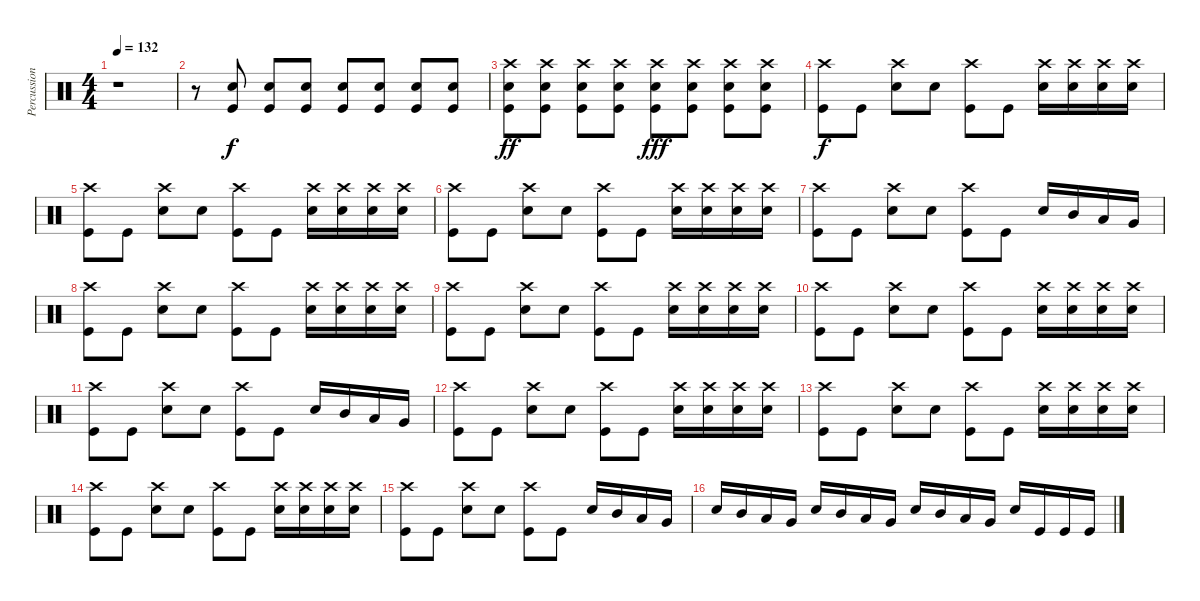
\track ("Percussion" "Percussion") {instrument percussion}
\staff {score}
\articulation defaults
\ts (4 4)
\tempo 132
\clef neutral
\ks c
r.1{dy f} |
r.8 ("Kick (hit)" "Electric Snare (hit)").8 ("Kick (hit)" "Electric Snare (hit)").8 ("Kick (hit)" "Electric Snare (hit)").8 ("Kick (hit)" "Electric Snare (hit)").8 ("Kick (hit)" "Electric Snare (hit)").8 ("Kick (hit)" "Electric Snare (hit)").8 ("Kick (hit)" "Electric Snare (hit)").8 |
("Kick (hit)" "Electric Snare (hit)" "Crash high (hit)").8{dy ff} ("Kick (hit)" "Electric Snare (hit)" "Crash high (hit)").8 ("Kick (hit)" "Electric Snare (hit)" "Crash high (hit)").8 ("Kick (hit)" "Electric Snare (hit)" "Crash high (hit)").8 ("Kick (hit)" "Electric Snare (hit)" "Crash high (hit)").8{dy fff} ("Kick (hit)" "Electric Snare (hit)" "Crash high (hit)").8 ("Kick (hit)" "Electric Snare (hit)" "Crash high (hit)").8 ("Kick (hit)" "Electric Snare (hit)" "Crash high (hit)").8 |
("Kick (hit)" "Crash high (hit)").8{dy f} "Kick (hit)".8 ("Crash high (hit)" "Electric Snare (hit)").8 "Electric Snare (hit)".8 ("Kick (hit)" "Crash high (hit)").8 "Kick (hit)".8 ("Crash high (hit)" "Electric Snare (hit)").16 ("Crash high (hit)" "Electric Snare (hit)").16 ("Crash high (hit)" "Electric Snare (hit)").16 ("Crash high (hit)" "Electric Snare (hit)").16 |
("Kick (hit)" "Crash high (hit)").8 "Kick (hit)".8 ("Crash high (hit)" "Electric Snare (hit)").8 "Electric Snare (hit)".8 ("Kick (hit)" "Crash high (hit)").8 "Kick (hit)".8 ("Crash high (hit)" "Electric Snare (hit)").16 ("Crash high (hit)" "Electric Snare (hit)").16 ("Crash high (hit)" "Electric Snare (hit)").16 ("Crash high (hit)" "Electric Snare (hit)").16 |
("Kick (hit)" "Crash high (hit)").8 "Kick (hit)".8 ("Crash high (hit)" "Electric Snare (hit)").8 "Electric Snare (hit)".8 ("Kick (hit)" "Crash high (hit)").8 "Kick (hit)".8 ("Crash high (hit)" "Electric Snare (hit)").16 ("Crash high (hit)" "Electric Snare (hit)").16 ("Crash high (hit)" "Electric Snare (hit)").16 ("Crash high (hit)" "Electric Snare (hit)").16 |
("Kick (hit)" "Crash high (hit)").8 "Kick (hit)".8 ("Crash high (hit)" "Electric Snare (hit)").8 "Electric Snare (hit)".8 ("Kick (hit)" "Crash high (hit)").8 "Kick (hit)".8 "Electric Snare (hit)".16 "Mid Tom (hit)".16 "Low Tom (hit)".16 "Very Low Tom (hit)".16 |
("Kick (hit)" "Crash high (hit)").8 "Kick (hit)".8 ("Crash high (hit)" "Electric Snare (hit)").8 "Electric Snare (hit)".8 ("Kick (hit)" "Crash high (hit)").8 "Kick (hit)".8 ("Crash high (hit)" "Electric Snare (hit)").16 ("Crash high (hit)" "Electric Snare (hit)").16 ("Crash high (hit)" "Electric Snare (hit)").16 ("Crash high (hit)" "Electric Snare (hit)").16 |
("Kick (hit)" "Crash high (hit)").8 "Kick (hit)".8 ("Crash high (hit)" "Electric Snare (hit)").8 "Electric Snare (hit)".8 ("Kick (hit)" "Crash high (hit)").8 "Kick (hit)".8 ("Crash high (hit)" "Electric Snare (hit)").16 ("Crash high (hit)" "Electric Snare (hit)").16 ("Crash high (hit)" "Electric Snare (hit)").16 ("Crash high (hit)" "Electric Snare (hit)").16 |
("Kick (hit)" "Crash high (hit)").8 "Kick (hit)".8 ("Crash high (hit)" "Electric Snare (hit)").8 "Electric Snare (hit)".8 ("Kick (hit)" "Crash high (hit)").8 "Kick (hit)".8 ("Crash high (hit)" "Electric Snare (hit)").16 ("Crash high (hit)" "Electric Snare (hit)").16 ("Crash high (hit)" "Electric Snare (hit)").16 ("Crash high (hit)" "Electric Snare (hit)").16 |
("Kick (hit)" "Crash high (hit)").8 "Kick (hit)".8 ("Crash high (hit)" "Electric Snare (hit)").8 "Electric Snare (hit)".8 ("Kick (hit)" "Crash high (hit)").8 "Kick (hit)".8 "Electric Snare (hit)".16 "Mid Tom (hit)".16 "Low Tom (hit)".16 "Very Low Tom (hit)".16 |
("Kick (hit)" "Crash high (hit)").8 "Kick (hit)".8 ("Crash high (hit)" "Electric Snare (hit)").8 "Electric Snare (hit)".8 ("Kick (hit)" "Crash high (hit)").8 "Kick (hit)".8 ("Crash high (hit)" "Electric Snare (hit)").16 ("Crash high (hit)" "Electric Snare (hit)").16 ("Crash high (hit)" "Electric Snare (hit)").16 ("Crash high (hit)" "Electric Snare (hit)").16 |
("Kick (hit)" "Crash high (hit)").8 "Kick (hit)".8 ("Crash high (hit)" "Electric Snare (hit)").8 "Electric Snare (hit)".8 ("Kick (hit)" "Crash high (hit)").8 "Kick (hit)".8 ("Crash high (hit)" "Electric Snare (hit)").16 ("Crash high (hit)" "Electric Snare (hit)").16 ("Crash high (hit)" "Electric Snare (hit)").16 ("Crash high (hit)" "Electric Snare (hit)").16 |
("Kick (hit)" "Crash high (hit)").8 "Kick (hit)".8 ("Crash high (hit)" "Electric Snare (hit)").8 "Electric Snare (hit)".8 ("Kick (hit)" "Crash high (hit)").8 "Kick (hit)".8 ("Crash high (hit)" "Electric Snare (hit)").16 ("Crash high (hit)" "Electric Snare (hit)").16 ("Crash high (hit)" "Electric Snare (hit)").16 ("Crash high (hit)" "Electric Snare (hit)").16 |
("Kick (hit)" "Crash high (hit)").8 "Kick (hit)".8 ("Crash high (hit)" "Electric Snare (hit)").8 "Electric Snare (hit)".8 ("Kick (hit)" "Crash high (hit)").8 "Kick (hit)".8 "Electric Snare (hit)".16 "Mid Tom (hit)".16 "Low Tom (hit)".16 "Very Low Tom (hit)".16 |
"Electric Snare (hit)".16 "Mid Tom (hit)".16 "Low Tom (hit)".16 "Very Low Tom (hit)".16 "Electric Snare (hit)".16 "Mid Tom (hit)".16 "Low Tom (hit)".16 "Very Low Tom (hit)".16 "Electric Snare (hit)".16 "Mid Tom (hit)".16 "Low Tom (hit)".16 "Very Low Tom (hit)".16 "Electric Snare (hit)".16 "Kick (hit)".16 "Kick (hit)".16 "Kick (hit)".16
